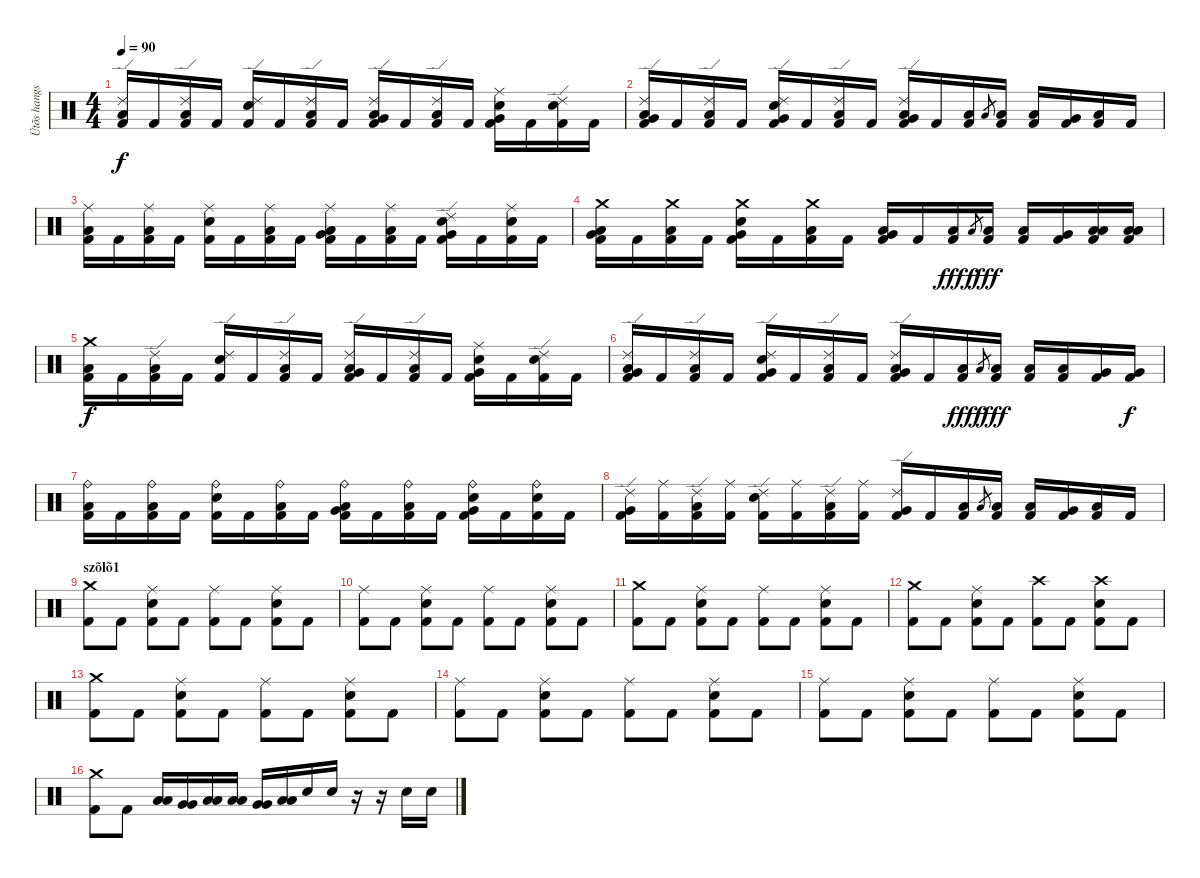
\track ("Ütõs hangszer" "Ütõs hangs") {instrument percussion}
\staff {score}
\articulation defaults
\ts (4 4)
\tempo 90
\clef neutral
\ks c
("Ride (edge) 2" "Low Tom (hit)" "Kick (hit) 2").16{dy f} "Kick (hit) 2".16 ("Ride (edge) 2" "Low Tom (hit)" "Kick (hit) 2").16 "Kick (hit) 2".16 ("Ride (edge) 2" "Electric Snare (hit)" "Kick (hit) 2").16 "Kick (hit) 2".16 ("Ride (edge) 2" "Low Floor Tom (hit)" "Kick (hit) 2").16 "Kick (hit) 2".16 ("Ride (edge) 2" "Low Tom (hit)" "Very Low Tom (hit)" "Kick (hit) 2").16 "Kick (hit) 2".16 ("Ride (edge) 2" "Low Tom (hit)" "Kick (hit) 2").16 "Kick (hit) 2".16 ("Ride (middle)" "Very Low Tom (hit)" "Electric Snare (hit)" "Kick (hit) 2").16 "Kick (hit) 2".16 ("Ride (edge) 2" "Electric Snare (hit)" "Kick (hit) 2").16 "Kick (hit) 2".16 |
("Ride (edge) 2" "Low Tom (hit)" "Very Low Tom (hit)" "Kick (hit) 2").16 "Kick (hit) 2".16 ("Ride (edge) 2" "Low Tom (hit)" "Kick (hit) 2").16 "Kick (hit) 2".16 ("Ride (edge) 2" "Very Low Tom (hit)" "Electric Snare (hit)" "Kick (hit) 2").16 "Kick (hit) 2".16 ("Ride (edge) 2" "Low Floor Tom (hit)" "Kick (hit) 2").16 "Kick (hit) 2".16 ("Ride (edge) 2" "Low Tom (hit)" "Very Low Tom (hit)" "Kick (hit) 2").16 "Kick (hit) 2".16 ("Low Tom (hit)" "Kick (hit) 2").16 "Low Tom (hit)".8{gr} ("Low Tom (hit)" "Kick (hit) 2").16 ("Low Tom (hit)" "Kick (hit) 2").16 ("Very Low Tom (hit)" "Kick (hit) 2").16 ("Low Floor Tom (hit)" "Kick (hit) 2").16 "Kick (hit) 2".16 |
("Ride (middle)" "Low Tom (hit)" "Kick (hit) 2").16 "Kick (hit) 2".16 ("Ride (middle)" "Low Tom (hit)" "Kick (hit) 2").16 "Kick (hit) 2".16 ("Ride (middle)" "Electric Snare (hit)" "Kick (hit) 2").16 "Kick (hit) 2".16 ("Ride (middle)" "Low Floor Tom (hit)" "Kick (hit) 2").16 "Kick (hit) 2".16 ("Ride (middle)" "Low Tom (hit)" "Very Low Tom (hit)" "Kick (hit) 2").16 "Kick (hit) 2".16 ("Ride (middle)" "Low Tom (hit)" "Kick (hit) 2").16 "Kick (hit) 2".16 ("Ride (edge) 2" "Very Low Tom (hit)" "Electric Snare (hit)" "Kick (hit) 2").16 "Kick (hit) 2".16 ("Ride (middle)" "Electric Snare (hit)" "Kick (hit) 2").16 "Kick (hit) 2".16 |
("Crash medium (hit)" "Low Tom (hit)" "Very Low Tom (hit)" "Kick (hit) 2").16 "Kick (hit) 2".16 ("Crash medium (hit)" "Low Tom (hit)" "Kick (hit) 2").16 "Kick (hit) 2".16 ("Crash medium (hit)" "Very Low Tom (hit)" "Electric Snare (hit)" "Kick (hit) 2").16 "Kick (hit) 2".16 ("Crash medium (hit)" "Low Floor Tom (hit)" "Kick (hit) 2").16 "Kick (hit) 2".16 ("Low Tom (hit)" "Very Low Tom (hit)" "Kick (hit) 2").16 "Kick (hit) 2".16 ("Low Tom (hit)" "Kick (hit) 2").16{dy fff} "Low Tom (hit)".8{gr dy f} ("Low Tom (hit)" "Kick (hit) 2").16{dy fff} ("Low Tom (hit)" "Kick (hit) 2").16 ("Very Low Tom (hit)" "Kick (hit) 2").16 ("Low Floor Tom (hit)" "Low Floor Tom (hit)" "Kick (hit) 2").16 ("Low Floor Tom (hit)" "Low Floor Tom (hit)" "Kick (hit) 2").16 |
("Crash medium (hit)" "Low Tom (hit)" "Kick (hit) 2").16{dy f} "Kick (hit) 2".16 ("Ride (edge) 2" "Low Tom (hit)" "Kick (hit) 2").16 "Kick (hit) 2".16 ("Ride (edge) 2" "Electric Snare (hit)" "Kick (hit) 2").16 "Kick (hit) 2".16 ("Ride (edge) 2" "Low Floor Tom (hit)" "Kick (hit) 2").16 "Kick (hit) 2".16 ("Ride (edge) 2" "Low Tom (hit)" "Very Low Tom (hit)" "Kick (hit) 2").16 "Kick (hit) 2".16 ("Ride (edge) 2" "Low Tom (hit)" "Kick (hit) 2").16 "Kick (hit) 2".16 ("Ride (middle)" "Very Low Tom (hit)" "Electric Snare (hit)" "Kick (hit) 2").16 "Kick (hit) 2".16 ("Ride (edge) 2" "Electric Snare (hit)" "Kick (hit) 2").16 "Kick (hit) 2".16 |
("Ride (edge) 2" "Low Tom (hit)" "Very Low Tom (hit)" "Kick (hit) 2").16 "Kick (hit) 2".16 ("Ride (edge) 2" "Low Tom (hit)" "Kick (hit) 2").16 "Kick (hit) 2".16 ("Ride (edge) 2" "Very Low Tom (hit)" "Electric Snare (hit)" "Kick (hit) 2").16 "Kick (hit) 2".16 ("Ride (edge) 2" "Low Floor Tom (hit)" "Kick (hit) 2").16 "Kick (hit) 2".16 ("Ride (edge) 2" "Low Tom (hit)" "Very Low Tom (hit)" "Kick (hit) 2").16 "Kick (hit) 2".16 ("Low Floor Tom (hit)" "Kick (hit) 2").16{dy fff} "Low Tom (hit)".8{gr dy f} ("Low Floor Tom (hit)" "Kick (hit) 2").16{dy fff} ("Low Tom (hit)" "Kick (hit) 2").16 ("Low Tom (hit)" "Kick (hit) 2").16 ("Very Low Tom (hit)" "Kick (hit) 2").16 ("Very Low Tom (hit)" "Kick (hit) 2").16{dy f} |
("Ride (bell)" "Low Tom (hit)" "Kick (hit) 2").16 "Kick (hit) 2".16 ("Ride (bell)" "Low Tom (hit)" "Kick (hit) 2").16 "Kick (hit) 2".16 ("Ride (bell)" "Electric Snare (hit)" "Kick (hit) 2").16 "Kick (hit) 2".16 ("Ride (bell)" "Low Floor Tom (hit)" "Kick (hit) 2").16 "Kick (hit) 2".16 ("Ride (bell)" "Low Tom (hit)" "Very Low Tom (hit)" "Kick (hit) 2").16 "Kick (hit) 2".16 ("Ride (bell)" "Low Tom (hit)" "Kick (hit) 2").16 "Kick (hit) 2".16 ("Ride (bell)" "Very Low Tom (hit)" "Electric Snare (hit)" "Kick (hit) 2").16 "Kick (hit) 2".16 ("Ride (bell)" "Electric Snare (hit)" "Kick (hit) 2").16 "Kick (hit) 2".16 |
("Ride (edge) 2" "Very Low Tom (hit)" "Kick (hit) 2").16 ("Ride (middle)" "Kick (hit) 2").16 ("Ride (edge) 2" "Low Tom (hit)" "Kick (hit) 2").16 ("Ride (middle)" "Kick (hit) 2").16 ("Ride (edge) 2" "Electric Snare (hit)" "Kick (hit) 2").16 ("Ride (middle)" "Kick (hit) 2").16 ("Ride (edge) 2" "Low Floor Tom (hit)" "Kick (hit) 2").16 ("Ride (middle)" "Kick (hit) 2").16 ("Ride (edge) 2" "Very Low Tom (hit)" "Kick (hit) 2").16 "Kick (hit) 2".16 ("Low Tom (hit)" "Kick (hit) 2").16 "Low Tom (hit)".8{gr} ("Low Tom (hit)" "Kick (hit) 2").16 ("Low Tom (hit)" "Kick (hit) 2").16 ("Very Low Tom (hit)" "Kick (hit) 2").16 ("Low Floor Tom (hit)" "Kick (hit) 2").16 "Kick (hit) 2".16 |
\section ("" "szõlõ1")
("Crash medium (hit)" "Kick (hit) 2").8 "Kick (hit) 2".8 ("Ride (middle)" "Electric Snare (hit)" "Kick (hit) 2").8 "Kick (hit) 2".8 ("Ride (middle)" "Kick (hit) 2").8 "Kick (hit) 2".8 ("Ride (middle)" "Electric Snare (hit)" "Kick (hit) 2").8 "Kick (hit) 2".8 |
("Ride (middle)" "Kick (hit) 2").8 "Kick (hit) 2".8 ("Ride (middle)" "Electric Snare (hit)" "Kick (hit) 2").8 "Kick (hit) 2".8 ("Ride (middle)" "Kick (hit) 2").8 "Kick (hit) 2".8 ("Ride (middle)" "Electric Snare (hit)" "Kick (hit) 2").8 "Kick (hit) 2".8 |
("Crash medium (hit)" "Kick (hit) 2").8 "Kick (hit) 2".8 ("Ride (middle)" "Electric Snare (hit)" "Kick (hit) 2").8 "Kick (hit) 2".8 ("Ride (middle)" "Kick (hit) 2").8 "Kick (hit) 2".8 ("Ride (middle)" "Electric Snare (hit)" "Kick (hit) 2").8 "Kick (hit) 2".8 |
("Crash medium (hit)" "Kick (hit) 2").8 "Kick (hit) 2".8 ("Ride (middle)" "Electric Snare (hit)" "Kick (hit) 2").8 "Kick (hit) 2".8 ("Crash high (hit)" "Kick (hit) 2").8 "Kick (hit) 2".8 ("Crash high (hit)" "Electric Snare (hit)" "Kick (hit) 2").8 "Kick (hit) 2".8 |
("Crash medium (hit)" "Kick (hit) 2").8 "Kick (hit) 2".8 ("Ride (middle)" "Electric Snare (hit)" "Kick (hit) 2").8 "Kick (hit) 2".8 ("Ride (middle)" "Kick (hit) 2").8 "Kick (hit) 2".8 ("Ride (middle)" "Electric Snare (hit)" "Kick (hit) 2").8 "Kick (hit) 2".8 |
("Ride (middle)" "Kick (hit) 2").8 "Kick (hit) 2".8 ("Ride (middle)" "Electric Snare (hit)" "Kick (hit) 2").8 "Kick (hit) 2".8 ("Ride (middle)" "Kick (hit) 2").8 "Kick (hit) 2".8 ("Ride (middle)" "Electric Snare (hit)" "Kick (hit) 2").8 "Kick (hit) 2".8 |
("Ride (middle)" "Kick (hit) 2").8 "Kick (hit) 2".8 ("Ride (middle)" "Electric Snare (hit)" "Kick (hit) 2").8 "Kick (hit) 2".8 ("Ride (middle)" "Kick (hit) 2").8 "Kick (hit) 2".8 ("Ride (middle)" "Electric Snare (hit)" "Kick (hit) 2").8 "Kick (hit) 2".8 |
("Crash medium (hit)" "Kick (hit) 2").8 "Kick (hit) 2".8 ("Low Tom (hit)" "Low Tom (hit)").16 ("Very Low Tom (hit)" "Very Low Tom (hit)").16 ("Low Floor Tom (hit)" "Low Floor Tom (hit)").16 ("Low Floor Tom (hit)" "Low Floor Tom (hit)").16 ("Very Low Tom (hit)" "Very Low Tom (hit)").16 ("Low Floor Tom (hit)" "Low Floor Tom (hit)").16 "Electric Snare (hit)".16 "Electric Snare (hit)".16 r.16 r.16 "Electric Snare (hit)".16 "Electric Snare (hit)".16
